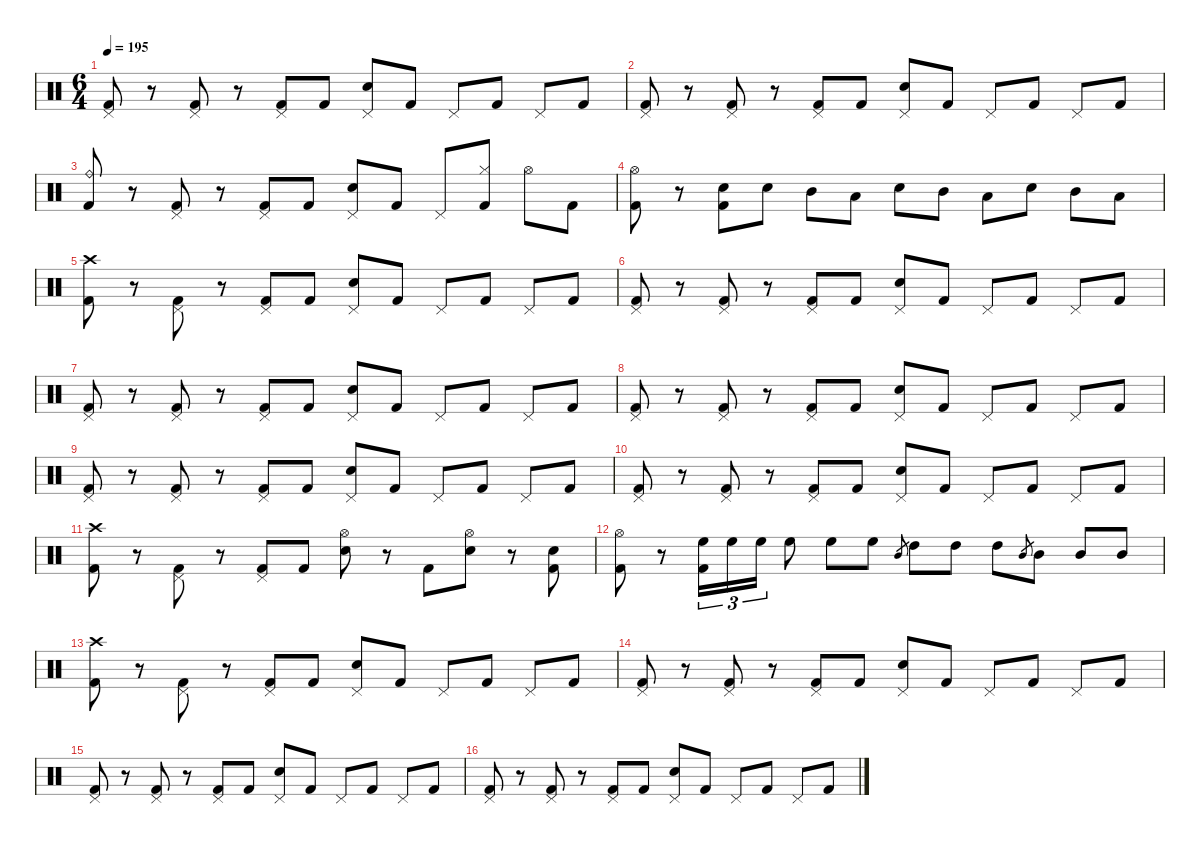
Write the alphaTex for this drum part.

\defaultSystemsLayout 4
\hideDynamics
\bracketExtendMode nobrackets
\singleTrackTrackNamePolicy hidden
\multiTrackTrackNamePolicy hidden
\firstSystemTrackNameMode fullname
\firstSystemTrackNameOrientation horizontal
\otherSystemsTrackNameOrientation horizontal
\track ("Drums" "drm.") {instrument percussion}
\staff {score}
\articulation defaults
\ts (6 4)
\tempo 195
\clef neutral
\ks c
("Pedal Hi-Hat (hit)" "Kick (hit) 2").8{dy mp beam Up} r.8{beam Up} ("Pedal Hi-Hat (hit)" "Kick (hit) 2").8{beam Up} r.8{beam Up} ("Pedal Hi-Hat (hit)" "Kick (hit) 2").8{beam Up} "Kick (hit) 2".8{beam Up} ("Pedal Hi-Hat (hit)" "Snare (hit) 2").8{beam Up} "Kick (hit) 2".8{beam Up} "Pedal Hi-Hat (hit)".8{beam Up} "Kick (hit) 2".8{beam Up} "Pedal Hi-Hat (hit)".8{beam Up} "Kick (hit) 2".8{beam Up} |
("Pedal Hi-Hat (hit)" "Kick (hit) 2").8{beam Up} r.8{beam Up} ("Pedal Hi-Hat (hit)" "Kick (hit) 2").8{beam Up} r.8{beam Up} ("Pedal Hi-Hat (hit)" "Kick (hit) 2").8{beam Up} "Kick (hit) 2".8{beam Up} ("Pedal Hi-Hat (hit)" "Snare (hit) 2").8{beam Up} "Kick (hit) 2".8{beam Up} "Pedal Hi-Hat (hit)".8{beam Up} "Kick (hit) 2".8{beam Up} "Pedal Hi-Hat (hit)".8{beam Up} "Kick (hit) 2".8{beam Up} |
("Ride (bell)" "Kick (hit) 2").8{beam Up} r.8{beam Up} ("Pedal Hi-Hat (hit)" "Kick (hit) 2").8{beam Up} r.8{beam Up} ("Pedal Hi-Hat (hit)" "Kick (hit) 2").8{beam Up} "Kick (hit) 2".8{beam Up} ("Pedal Hi-Hat (hit)" "Snare (hit) 2").8{beam Up} "Kick (hit) 2".8{beam Up} "Pedal Hi-Hat (hit)".8{beam Up} ("Hi-Hat (closed)" "Kick (hit) 2").8{beam Down} "Hi-Hat (open)".8{beam Down} "Kick (hit) 2".8{beam Down} |
("Hi-Hat (open)" "Kick (hit) 2").8{beam Down} r.8{beam Down} ("Snare (hit) 2" "Kick (hit) 2").8{beam Down} "Snare (hit) 2".8{beam Down} "Mid Tom (hit)".8{beam Down} "Low Tom (hit)".8{beam Down} "Snare (hit) 2".8{beam Down} "Mid Tom (hit)".8{beam Down} "Low Tom (hit)".8{beam Down} "Snare (hit) 2".8{beam Down} "Mid Tom (hit)".8{beam Down} "Low Tom (hit)".8{beam Down} |
("Crash high (hit)" "Kick (hit) 2").8{beam Down} r.8{beam Down} ("Pedal Hi-Hat (hit)" "Kick (hit) 2").8{beam Down} r.8{beam Down} ("Pedal Hi-Hat (hit)" "Kick (hit) 2").8{beam Up} "Kick (hit) 2".8{beam Up} ("Pedal Hi-Hat (hit)" "Snare (hit) 2").8{beam Up} "Kick (hit) 2".8{beam Up} "Pedal Hi-Hat (hit)".8{beam Up} "Kick (hit) 2".8{beam Up} "Pedal Hi-Hat (hit)".8{beam Up} "Kick (hit) 2".8{beam Up} |
("Pedal Hi-Hat (hit)" "Kick (hit) 2").8{beam Up} r.8{beam Up} ("Pedal Hi-Hat (hit)" "Kick (hit) 2").8{beam Up} r.8{beam Up} ("Pedal Hi-Hat (hit)" "Kick (hit) 2").8{beam Up} "Kick (hit) 2".8{beam Up} ("Pedal Hi-Hat (hit)" "Snare (hit) 2").8{beam Up} "Kick (hit) 2".8{beam Up} "Pedal Hi-Hat (hit)".8{beam Up} "Kick (hit) 2".8{beam Up} "Pedal Hi-Hat (hit)".8{beam Up} "Kick (hit) 2".8{beam Up} |
("Pedal Hi-Hat (hit)" "Kick (hit) 2").8{beam Up} r.8{beam Up} ("Pedal Hi-Hat (hit)" "Kick (hit) 2").8{beam Up} r.8{beam Up} ("Pedal Hi-Hat (hit)" "Kick (hit) 2").8{beam Up} "Kick (hit) 2".8{beam Up} ("Pedal Hi-Hat (hit)" "Snare (hit) 2").8{beam Up} "Kick (hit) 2".8{beam Up} "Pedal Hi-Hat (hit)".8{beam Up} "Kick (hit) 2".8{beam Up} "Pedal Hi-Hat (hit)".8{beam Up} "Kick (hit) 2".8{beam Up} |
("Pedal Hi-Hat (hit)" "Kick (hit) 2").8{beam Up} r.8{beam Up} ("Pedal Hi-Hat (hit)" "Kick (hit) 2").8{beam Up} r.8{beam Up} ("Pedal Hi-Hat (hit)" "Kick (hit) 2").8{beam Up} "Kick (hit) 2".8{beam Up} ("Pedal Hi-Hat (hit)" "Snare (hit) 2").8{beam Up} "Kick (hit) 2".8{beam Up} "Pedal Hi-Hat (hit)".8{beam Up} "Kick (hit) 2".8{beam Up} "Pedal Hi-Hat (hit)".8{beam Up} "Kick (hit) 2".8{beam Up} |
("Pedal Hi-Hat (hit)" "Kick (hit) 2").8{beam Up} r.8{beam Up} ("Pedal Hi-Hat (hit)" "Kick (hit) 2").8{beam Up} r.8{beam Up} ("Pedal Hi-Hat (hit)" "Kick (hit) 2").8{beam Up} "Kick (hit) 2".8{beam Up} ("Pedal Hi-Hat (hit)" "Snare (hit) 2").8{beam Up} "Kick (hit) 2".8{beam Up} "Pedal Hi-Hat (hit)".8{beam Up} "Kick (hit) 2".8{beam Up} "Pedal Hi-Hat (hit)".8{beam Up} "Kick (hit) 2".8{beam Up} |
("Pedal Hi-Hat (hit)" "Kick (hit) 2").8{beam Up} r.8{beam Up} ("Pedal Hi-Hat (hit)" "Kick (hit) 2").8{beam Up} r.8{beam Up} ("Pedal Hi-Hat (hit)" "Kick (hit) 2").8{beam Up} "Kick (hit) 2".8{beam Up} ("Pedal Hi-Hat (hit)" "Snare (hit) 2").8{beam Up} "Kick (hit) 2".8{beam Up} "Pedal Hi-Hat (hit)".8{beam Up} "Kick (hit) 2".8{beam Up} "Pedal Hi-Hat (hit)".8{beam Up} "Kick (hit) 2".8{beam Up} |
("Crash high (hit)" "Kick (hit) 2").8{beam Down} r.8{beam Down} ("Pedal Hi-Hat (hit)" "Kick (hit) 2").8{beam Down} r.8{beam Down} ("Pedal Hi-Hat (hit)" "Kick (hit) 2").8{beam Up} "Kick (hit) 2".8{beam Up} ("Hi-Hat (open)" "Snare (hit) 2").8{beam Down} r.8{beam Down} "Kick (hit) 2".8{beam Down} ("Hi-Hat (open)" "Snare (hit) 2").8{beam Down} r.8{beam Down} ("Snare (hit) 2" "Kick (hit) 2").8{beam Down} |
("Hi-Hat (open)" "Kick (hit) 2").8{dy f beam Down} r.8{beam Down} ("High Floor Tom (hit)" "Kick (hit) 2").16{tu (3 2) dy mf beam Down} "High Floor Tom (hit)".16{tu (3 2) beam Down} "High Floor Tom (hit)".16{tu (3 2) beam Down} "High Floor Tom (hit)".8{beam Down} "High Floor Tom (hit)".8{beam Down} "High Floor Tom (hit)".8{beam Down} "Mid Tom (hit)".8{gr beam Up} "High Tom (hit)".8{beam Down} "High Tom (hit)".8{beam Down} "High Tom (hit)".8{beam Down} "Mid Tom (hit)".8{gr beam Up} "Mid Tom (hit)".8{beam Up} "Mid Tom (hit)".8{beam Up} "Mid Tom (hit)".8{beam Up} |
("Crash high (hit)" "Kick (hit) 2").8{beam Down} r.8{beam Down} ("Pedal Hi-Hat (hit)" "Kick (hit) 2").8{beam Down} r.8{beam Down} ("Pedal Hi-Hat (hit)" "Kick (hit) 2").8{beam Up} "Kick (hit) 2".8{beam Up} ("Pedal Hi-Hat (hit)" "Snare (hit) 2").8{beam Up} "Kick (hit) 2".8{beam Up} "Pedal Hi-Hat (hit)".8{beam Up} "Kick (hit) 2".8{beam Up} "Pedal Hi-Hat (hit)".8{beam Up} "Kick (hit) 2".8{beam Up} |
("Pedal Hi-Hat (hit)" "Kick (hit) 2").8{beam Up} r.8{beam Up} ("Pedal Hi-Hat (hit)" "Kick (hit) 2").8{beam Up} r.8{beam Up} ("Pedal Hi-Hat (hit)" "Kick (hit) 2").8{beam Up} "Kick (hit) 2".8{beam Up} ("Pedal Hi-Hat (hit)" "Snare (hit) 2").8{beam Up} "Kick (hit) 2".8{beam Up} "Pedal Hi-Hat (hit)".8{beam Up} "Kick (hit) 2".8{beam Up} "Pedal Hi-Hat (hit)".8{beam Up} "Kick (hit) 2".8{beam Up} |
("Pedal Hi-Hat (hit)" "Kick (hit) 2").8{beam Up} r.8{beam Up} ("Pedal Hi-Hat (hit)" "Kick (hit) 2").8{beam Up} r.8{beam Up} ("Pedal Hi-Hat (hit)" "Kick (hit) 2").8{beam Up} "Kick (hit) 2".8{beam Up} ("Pedal Hi-Hat (hit)" "Snare (hit) 2").8{beam Up} "Kick (hit) 2".8{beam Up} "Pedal Hi-Hat (hit)".8{beam Up} "Kick (hit) 2".8{beam Up} "Pedal Hi-Hat (hit)".8{beam Up} "Kick (hit) 2".8{beam Up} |
("Pedal Hi-Hat (hit)" "Kick (hit) 2").8{beam Up} r.8{beam Up} ("Pedal Hi-Hat (hit)" "Kick (hit) 2").8{beam Up} r.8{beam Up} ("Pedal Hi-Hat (hit)" "Kick (hit) 2").8{beam Up} "Kick (hit) 2".8{beam Up} ("Pedal Hi-Hat (hit)" "Snare (hit) 2").8{beam Up} "Kick (hit) 2".8{beam Up} "Pedal Hi-Hat (hit)".8{beam Up} "Kick (hit) 2".8{beam Up} "Pedal Hi-Hat (hit)".8{beam Up} "Kick (hit) 2".8{beam Up}
